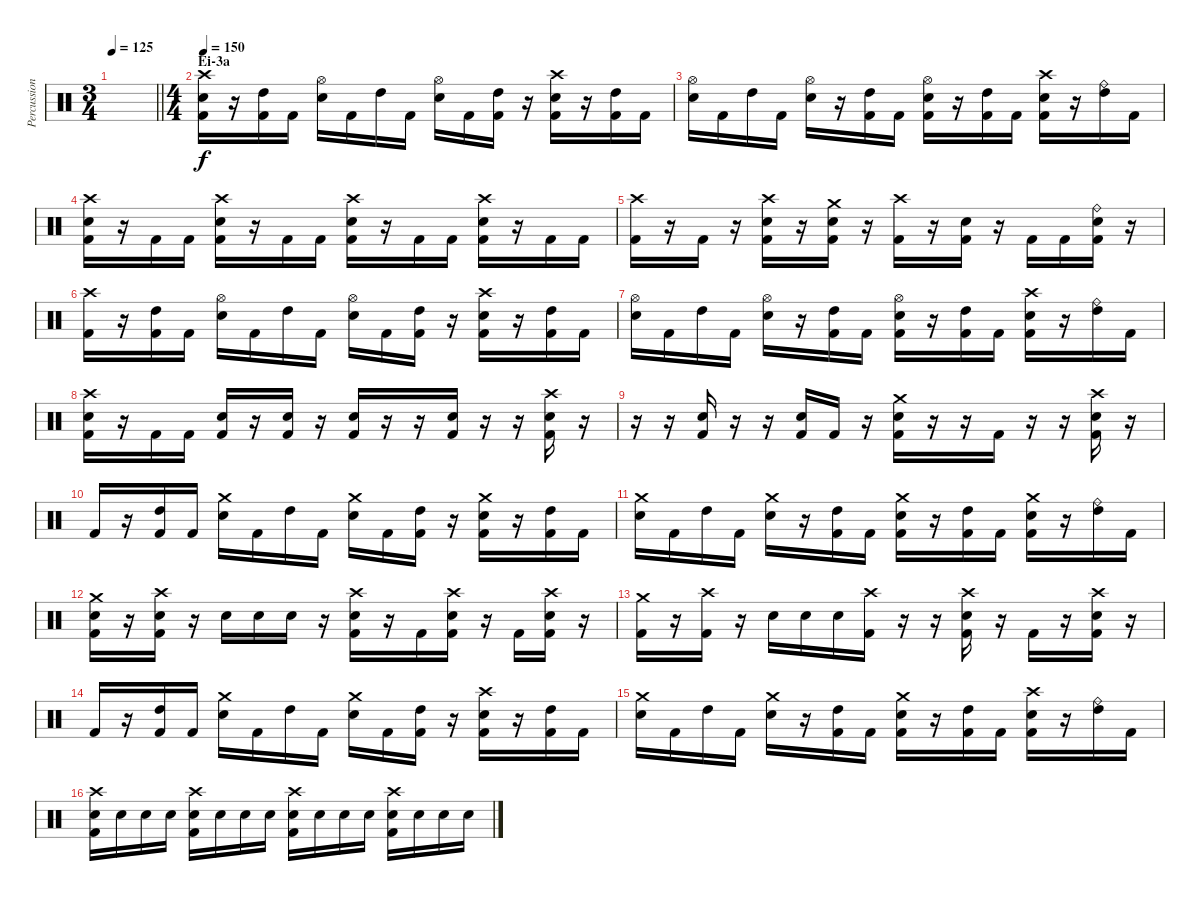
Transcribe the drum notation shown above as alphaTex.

\track ("Percussion" "Percussion") {instrument percussion}
\staff {score}
\articulation defaults
\ts (3 4)
\tempo 125
\clef neutral
\barLineRight lightlight
\ks c
|
\ts (4 4)
\section ("" "Ei-3a")
\tempo 150
("Crash high (hit)" "Electric Snare (hit)" "Kick (hit) 2").16 r.16 ("High Tom (hit)" "Kick (hit) 2").16 "Kick (hit) 2".16 ("Hi-Hat (open)" "Electric Snare (hit)").16 "Kick (hit) 2".16 "High Tom (hit)".16 "Kick (hit) 2".16 ("Hi-Hat (open)" "Electric Snare (hit)").16 "Kick (hit) 2".16 ("High Tom (hit)" "Kick (hit) 2").16 r.16 ("Crash high (hit)" "Electric Snare (hit)" "Kick (hit) 2").16 r.16 ("High Tom (hit)" "Kick (hit) 2").16 "Kick (hit) 2".16 |
("Hi-Hat (open)" "Electric Snare (hit)").16 "Kick (hit) 2".16 "High Tom (hit)".16 "Kick (hit) 2".16 ("Hi-Hat (open)" "Electric Snare (hit)").16 r.16 ("High Tom (hit)" "Kick (hit) 2").16 "Kick (hit) 2".16 ("Hi-Hat (open)" "Electric Snare (hit)" "Kick (hit) 2").16 r.16 ("High Tom (hit)" "Kick (hit) 2").16 "Kick (hit) 2".16 ("Crash high (hit)" "Electric Snare (hit)" "Kick (hit) 2").16 r.16 ("Ride (bell)" "High Tom (hit)").16 "Kick (hit) 2".16 |
("Crash high (hit)" "Electric Snare (hit)" "Kick (hit) 2").16 r.16 "Kick (hit) 2".16 "Kick (hit) 2".16 ("Crash high (hit)" "Electric Snare (hit)" "Kick (hit) 2").16 r.16 "Kick (hit) 2".16 "Kick (hit) 2".16 ("Crash high (hit)" "Electric Snare (hit)" "Kick (hit) 2").16 r.16 "Kick (hit) 2".16 "Kick (hit) 2".16 ("Crash high (hit)" "Electric Snare (hit)" "Kick (hit) 2").16 r.16 "Kick (hit) 2".16 "Kick (hit) 2".16 |
("Crash high (hit)" "Kick (hit) 2").16 r.16 "Kick (hit) 2".16 r.16 ("Crash high (hit)" "Electric Snare (hit)" "Kick (hit) 2").16 r.16 ("Crash medium (hit)" "Electric Snare (hit)" "Kick (hit) 2").16 r.16 ("Crash high (hit)" "Kick (hit) 2").16 r.16 ("Electric Snare (hit)" "Kick (hit) 2").16 r.16 "Kick (hit) 2".16 "Kick (hit) 2".16 ("Ride (bell)" "Electric Snare (hit)" "Kick (hit) 2").16 r.16 |
("Crash high (hit)" "Kick (hit) 2").16 r.16 ("High Tom (hit)" "Kick (hit) 2").16 "Kick (hit) 2".16 ("Hi-Hat (open)" "Electric Snare (hit)").16 "Kick (hit) 2".16 "High Tom (hit)".16 "Kick (hit) 2".16 ("Hi-Hat (open)" "Electric Snare (hit)").16 "Kick (hit) 2".16 ("High Tom (hit)" "Kick (hit) 2").16 r.16 ("Crash high (hit)" "Electric Snare (hit)" "Kick (hit) 2").16 r.16 ("High Tom (hit)" "Kick (hit) 2").16 "Kick (hit) 2".16 |
("Hi-Hat (open)" "Electric Snare (hit)").16 "Kick (hit) 2".16 "High Tom (hit)".16 "Kick (hit) 2".16 ("Hi-Hat (open)" "Electric Snare (hit)").16 r.16 ("High Tom (hit)" "Kick (hit) 2").16 "Kick (hit) 2".16 ("Hi-Hat (open)" "Electric Snare (hit)" "Kick (hit) 2").16 r.16 ("High Tom (hit)" "Kick (hit) 2").16 "Kick (hit) 2".16 ("Crash high (hit)" "Electric Snare (hit)" "Kick (hit) 2").16 r.16 ("Ride (bell)" "High Tom (hit)").16 "Kick (hit) 2".16 |
("Crash high (hit)" "Electric Snare (hit)" "Kick (hit) 2").16 r.16 "Kick (hit) 2".16 "Kick (hit) 2".16 ("Electric Snare (hit)" "Kick (hit) 2").16 r.16 ("Electric Snare (hit)" "Kick (hit) 2").16 r.16 ("Electric Snare (hit)" "Kick (hit) 2").16 r.16 r.16 ("Electric Snare (hit)" "Kick (hit) 2").16 r.16 r.16 ("Crash high (hit)" "Electric Snare (hit)" "Kick (hit) 2").16 r.16 |
r.16 r.16 ("Electric Snare (hit)" "Kick (hit) 2").16 r.16 r.16 ("Electric Snare (hit)" "Kick (hit) 2").16 "Kick (hit) 2".16 r.16 ("Crash medium (hit)" "Electric Snare (hit)" "Kick (hit) 2").16 r.16 r.16 "Kick (hit) 2".16 r.16 r.16 ("Crash high (hit)" "Electric Snare (hit)" "Kick (hit) 2").16 r.16 |
"Kick (hit) 2".16 r.16 ("High Tom (hit)" "Kick (hit) 2").16 "Kick (hit) 2".16 ("Crash medium (hit)" "Electric Snare (hit)").16 "Kick (hit) 2".16 "High Tom (hit)".16 "Kick (hit) 2".16 ("Crash medium (hit)" "Electric Snare (hit)").16 "Kick (hit) 2".16 ("High Tom (hit)" "Kick (hit) 2").16 r.16 ("Crash medium (hit)" "Electric Snare (hit)" "Kick (hit) 2").16 r.16 ("High Tom (hit)" "Kick (hit) 2").16 "Kick (hit) 2".16 |
("Crash medium (hit)" "Electric Snare (hit)").16 "Kick (hit) 2".16 "High Tom (hit)".16 "Kick (hit) 2".16 ("Crash medium (hit)" "Electric Snare (hit)").16 r.16 ("High Tom (hit)" "Kick (hit) 2").16 "Kick (hit) 2".16 ("Crash medium (hit)" "Electric Snare (hit)" "Kick (hit) 2").16 r.16 ("High Tom (hit)" "Kick (hit) 2").16 "Kick (hit) 2".16 ("Crash medium (hit)" "Electric Snare (hit)" "Kick (hit) 2").16 r.16 ("Ride (bell)" "High Tom (hit)").16 "Kick (hit) 2".16 |
("Crash medium (hit)" "Electric Snare (hit)" "Kick (hit) 2").16 r.16 ("Crash high (hit)" "Electric Snare (hit)" "Kick (hit) 2").16 r.16 "Electric Snare (hit)".16 "Electric Snare (hit)".16 "Electric Snare (hit)".16 r.16 ("Crash high (hit)" "Electric Snare (hit)" "Kick (hit) 2").16 r.16 "Kick (hit) 2".16 ("Crash high (hit)" "Electric Snare (hit)" "Kick (hit) 2").16 r.16 "Kick (hit) 2".16 ("Crash high (hit)" "Electric Snare (hit)" "Kick (hit) 2").16 r.16 |
("Crash medium (hit)" "Kick (hit) 2").16 r.16 ("Crash high (hit)" "Kick (hit) 2").16 r.16 "Electric Snare (hit)".16 "Electric Snare (hit)".16 "Electric Snare (hit)".16 ("Crash high (hit)" "Kick (hit) 2").16 r.16 r.16 ("Crash high (hit)" "Electric Snare (hit)" "Kick (hit) 2").16 r.16 "Kick (hit) 2".16 r.16 ("Crash high (hit)" "Electric Snare (hit)" "Kick (hit) 2").16 r.16 |
"Kick (hit) 2".16 r.16 ("High Tom (hit)" "Kick (hit) 2").16 "Kick (hit) 2".16 ("Crash medium (hit)" "Electric Snare (hit)").16 "Kick (hit) 2".16 "High Tom (hit)".16 "Kick (hit) 2".16 ("Crash medium (hit)" "Electric Snare (hit)").16 "Kick (hit) 2".16 ("High Tom (hit)" "Kick (hit) 2").16 r.16 ("Crash high (hit)" "Electric Snare (hit)" "Kick (hit) 2").16 r.16 ("High Tom (hit)" "Kick (hit) 2").16 "Kick (hit) 2".16 |
("Crash medium (hit)" "Electric Snare (hit)").16 "Kick (hit) 2".16 "High Tom (hit)".16 "Kick (hit) 2".16 ("Crash medium (hit)" "Electric Snare (hit)").16 r.16 ("High Tom (hit)" "Kick (hit) 2").16 "Kick (hit) 2".16 ("Crash medium (hit)" "Electric Snare (hit)" "Kick (hit) 2").16 r.16 ("High Tom (hit)" "Kick (hit) 2").16 "Kick (hit) 2".16 ("Crash high (hit)" "Electric Snare (hit)" "Kick (hit) 2").16 r.16 ("Ride (bell)" "High Tom (hit)").16 "Kick (hit) 2".16 |
("Crash high (hit)" "Electric Snare (hit)" "Kick (hit) 2").16 "Electric Snare (hit)".16 "Electric Snare (hit)".16 "Electric Snare (hit)".16 ("Crash high (hit)" "Electric Snare (hit)" "Kick (hit) 2").16 "Electric Snare (hit)".16 "Electric Snare (hit)".16 "Electric Snare (hit)".16 ("Crash high (hit)" "Electric Snare (hit)" "Kick (hit) 2").16 "Electric Snare (hit)".16 "Electric Snare (hit)".16 "Electric Snare (hit)".16 ("Crash high (hit)" "Electric Snare (hit)" "Kick (hit) 2").16 "Electric Snare (hit)".16 "Electric Snare (hit)".16 "Electric Snare (hit)".16
